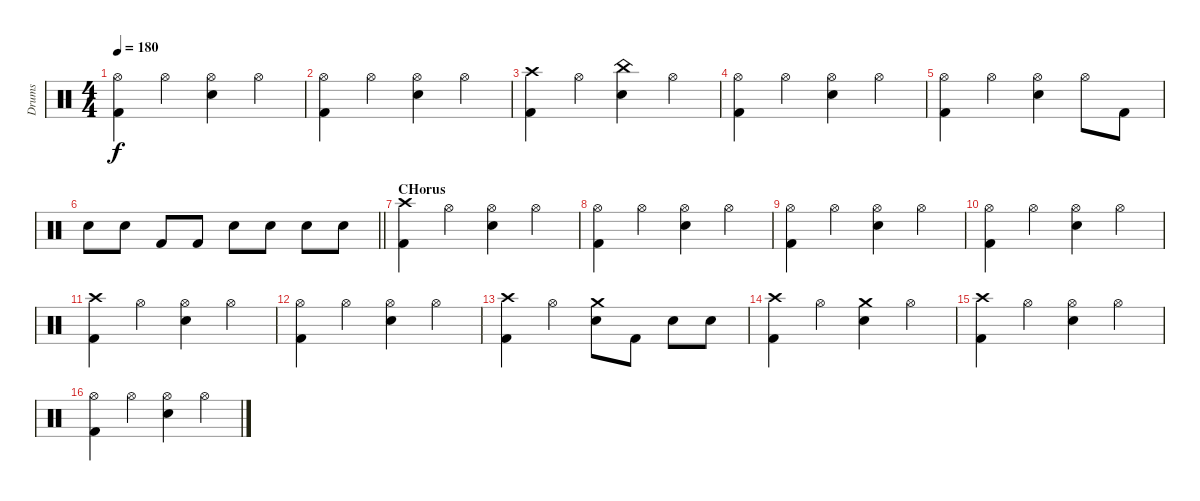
\track ("Drums" "Drums") {instrument percussion}
\staff {score}
\articulation defaults
\ts (4 4)
\tempo 180
\clef neutral
\ks c
("Hi-Hat (open)" "Kick (hit) 2").4{dy f} "Hi-Hat (open)".4 ("Hi-Hat (open)" "Electric Snare (hit)").4 "Hi-Hat (open)".4 |
("Hi-Hat (open)" "Kick (hit) 2").4 "Hi-Hat (open)".4 ("Hi-Hat (open)" "Electric Snare (hit)").4 "Hi-Hat (open)".4 |
("Crash high (hit)" "Kick (hit) 2").4 "Hi-Hat (open)".4 ("China (hit)" "Electric Snare (hit)").4 "Hi-Hat (open)".4 |
("Hi-Hat (open)" "Kick (hit) 2").4 "Hi-Hat (open)".4 ("Hi-Hat (open)" "Electric Snare (hit)").4 "Hi-Hat (open)".4 |
("Hi-Hat (open)" "Kick (hit) 2").4 "Hi-Hat (open)".4 ("Hi-Hat (open)" "Electric Snare (hit)").4 "Hi-Hat (open)".8 "Kick (hit) 2".8 |
\barLineRight lightlight "Electric Snare (hit)".8 "Electric Snare (hit)".8 "Kick (hit) 2".8 "Kick (hit) 2".8 "Electric Snare (hit)".8 "Electric Snare (hit)".8 "Electric Snare (hit)".8 "Electric Snare (hit)".8
|
\section ("" "CHorus")
("Crash high (hit)" "Kick (hit) 2").4 "Hi-Hat (open)".4 ("Hi-Hat (open)" "Electric Snare (hit)").4 "Hi-Hat (open)".4 |
("Hi-Hat (open)" "Kick (hit) 2").4 "Hi-Hat (open)".4 ("Hi-Hat (open)" "Electric Snare (hit)").4 "Hi-Hat (open)".4 |
("Hi-Hat (open)" "Kick (hit) 2").4 "Hi-Hat (open)".4 ("Hi-Hat (open)" "Electric Snare (hit)").4 "Hi-Hat (open)".4 |
("Hi-Hat (open)" "Kick (hit) 2").4 "Hi-Hat (open)".4 ("Hi-Hat (open)" "Electric Snare (hit)").4 "Hi-Hat (open)".4 |
("Crash high (hit)" "Kick (hit) 2").4 "Hi-Hat (open)".4 ("Hi-Hat (open)" "Electric Snare (hit)").4 "Hi-Hat (open)".4 |
("Hi-Hat (open)" "Kick (hit) 2").4 "Hi-Hat (open)".4 ("Hi-Hat (open)" "Electric Snare (hit)").4 "Hi-Hat (open)".4 |
("Crash high (hit)" "Kick (hit) 2").4 "Hi-Hat (open)".4 ("Crash medium (hit)" "Electric Snare (hit)").8 "Kick (hit) 2".8 "Electric Snare (hit)".8 "Electric Snare (hit)".8 |
("Crash high (hit)" "Kick (hit) 2").4 "Hi-Hat (open)".4 ("Crash medium (hit)" "Electric Snare (hit)").4 "Hi-Hat (open)".4 |
("Crash high (hit)" "Kick (hit) 2").4 "Hi-Hat (open)".4 ("Hi-Hat (open)" "Electric Snare (hit)").4 "Hi-Hat (open)".4 |
("Hi-Hat (open)" "Kick (hit) 2").4 "Hi-Hat (open)".4 ("Hi-Hat (open)" "Electric Snare (hit)").4 "Hi-Hat (open)".4
